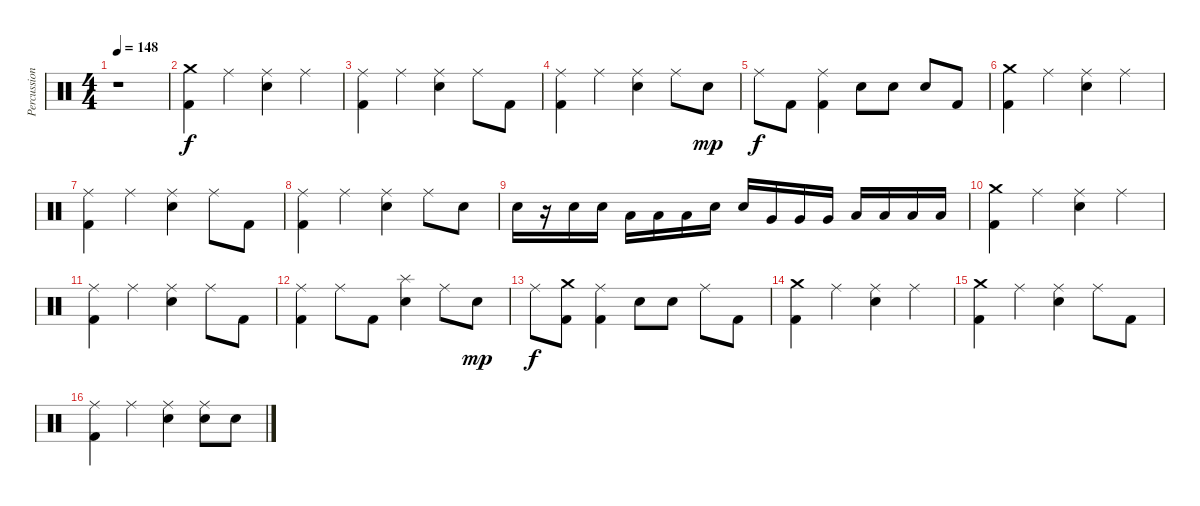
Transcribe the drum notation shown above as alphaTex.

\track ("Percussion" "Percussion") {instrument percussion}
\staff {score}
\articulation defaults
\ts (4 4)
\tempo 148
\clef neutral
\ks c
r.1{dy f} |
("Crash medium (hit)" "Kick (hit) 2").4 "Ride (middle)".4 ("Ride (middle)" "Electric Snare (hit)").4 "Ride (middle)".4 |
("Ride (middle)" "Kick (hit) 2").4 "Ride (middle)".4 ("Ride (middle)" "Electric Snare (hit)").4 "Ride (middle)".8 "Kick (hit) 2".8 |
("Ride (middle)" "Kick (hit) 2").4 "Ride (middle)".4 ("Ride (middle)" "Electric Snare (hit)").4 "Ride (middle)".8 "Electric Snare (hit)".8{dy mp} |
"Ride (middle)".8{dy f} "Kick (hit) 2".8 ("Ride (middle)" "Kick (hit) 2").4 "Electric Snare (hit)".8 "Electric Snare (hit)".8 "Electric Snare (hit)".8 "Kick (hit) 2".8 |
("Crash medium (hit)" "Kick (hit) 2").4 "Ride (middle)".4 ("Ride (middle)" "Electric Snare (hit)").4 "Ride (middle)".4 |
("Ride (middle)" "Kick (hit) 2").4 "Ride (middle)".4 ("Ride (middle)" "Electric Snare (hit)").4 "Ride (middle)".8 "Kick (hit) 2".8 |
("Ride (middle)" "Kick (hit) 2").4 "Ride (middle)".4 ("Ride (middle)" "Electric Snare (hit)").4 "Ride (middle)".8 "Electric Snare (hit)".8 |
"Electric Snare (hit)".16 r.16 "Electric Snare (hit)".16 "Electric Snare (hit)".16 "Low Tom (hit)".16 "Low Tom (hit)".16 "Low Tom (hit)".16 "Electric Snare (hit)".16 "Electric Snare (hit)".16 "Very Low Tom (hit)".16 "Very Low Tom (hit)".16 "Very Low Tom (hit)".16 "Low Floor Tom (hit)".16 "Low Floor Tom (hit)".16 "Low Floor Tom (hit)".16 "Low Floor Tom (hit)".16 |
("Crash medium (hit)" "Kick (hit) 2").4 "Ride (middle)".4 ("Ride (middle)" "Electric Snare (hit)").4 "Ride (middle)".4 |
("Ride (middle)" "Kick (hit) 2").4 "Ride (middle)".4 ("Ride (middle)" "Electric Snare (hit)").4 "Ride (middle)".8 "Kick (hit) 2".8 |
("Ride (middle)" "Kick (hit) 2").4 "Ride (middle)".8 "Kick (hit) 2".8 ("Splash (hit)" "Electric Snare (hit)").4 "Ride (middle)".8 "Electric Snare (hit)".8{dy mp} |
"Ride (middle)".8{dy f} ("Crash medium (hit)" "Kick (hit) 2").8 ("Ride (middle)" "Kick (hit) 2").4 "Electric Snare (hit)".8 "Electric Snare (hit)".8 "Ride (middle)".8 "Kick (hit) 2".8 |
("Crash medium (hit)" "Kick (hit) 2").4 "Ride (middle)".4 ("Ride (middle)" "Electric Snare (hit)").4 "Ride (middle)".4 |
("Crash medium (hit)" "Kick (hit) 2").4 "Ride (middle)".4 ("Ride (middle)" "Electric Snare (hit)").4 "Ride (middle)".8 "Kick (hit) 2".8 |
("Ride (middle)" "Kick (hit) 2").4 "Ride (middle)".4 ("Ride (middle)" "Electric Snare (hit)").4 ("Ride (middle)" "Electric Snare (hit)").8 "Electric Snare (hit)".8
